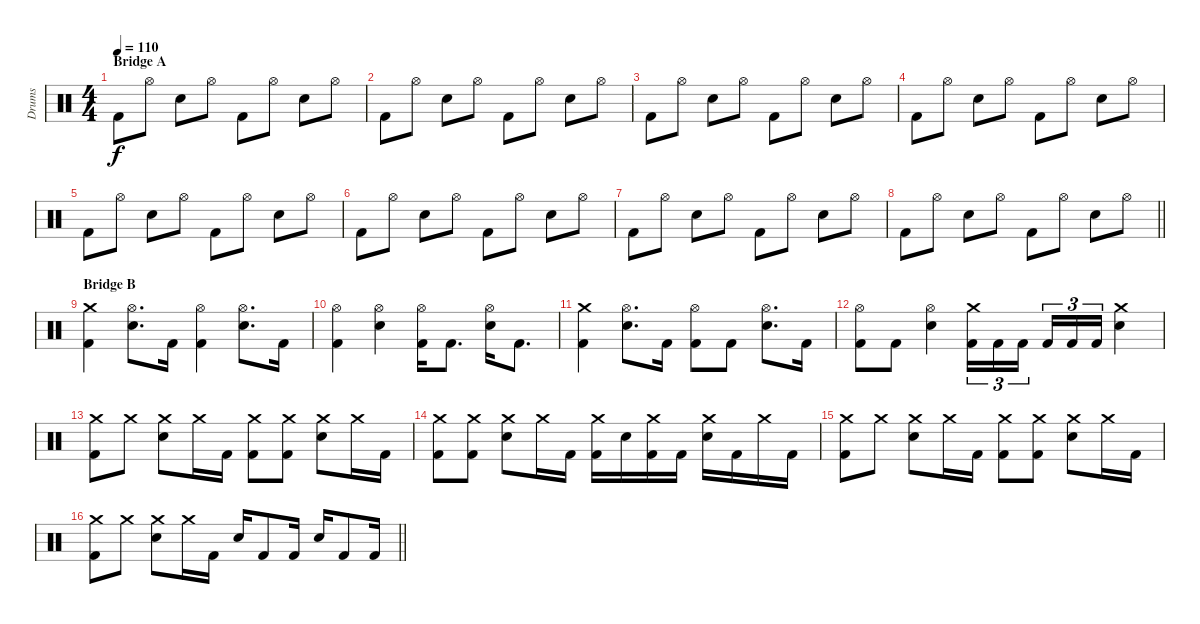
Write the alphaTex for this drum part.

\track ("Drums" "Drums") {instrument percussion}
\staff {score}
\articulation defaults
\ts (4 4)
\section ("" "Bridge A")
\tempo 110
\clef neutral
\ks c "Kick (hit) 2".8{dy f} "Hi-Hat (open)".8 "Electric Snare (hit)".8 "Hi-Hat (open)".8 "Kick (hit) 2".8 "Hi-Hat (open)".8 "Electric Snare (hit)".8 "Hi-Hat (open)".8
|
"Kick (hit) 2".8 "Hi-Hat (open)".8 "Electric Snare (hit)".8 "Hi-Hat (open)".8 "Kick (hit) 2".8 "Hi-Hat (open)".8 "Electric Snare (hit)".8 "Hi-Hat (open)".8 |
"Kick (hit) 2".8 "Hi-Hat (open)".8 "Electric Snare (hit)".8 "Hi-Hat (open)".8 "Kick (hit) 2".8 "Hi-Hat (open)".8 "Electric Snare (hit)".8 "Hi-Hat (open)".8 |
"Kick (hit) 2".8 "Hi-Hat (open)".8 "Electric Snare (hit)".8 "Hi-Hat (open)".8 "Kick (hit) 2".8 "Hi-Hat (open)".8 "Electric Snare (hit)".8 "Hi-Hat (open)".8 |
"Kick (hit) 2".8 "Hi-Hat (open)".8 "Electric Snare (hit)".8 "Hi-Hat (open)".8 "Kick (hit) 2".8 "Hi-Hat (open)".8 "Electric Snare (hit)".8 "Hi-Hat (open)".8 |
"Kick (hit) 2".8 "Hi-Hat (open)".8 "Electric Snare (hit)".8 "Hi-Hat (open)".8 "Kick (hit) 2".8 "Hi-Hat (open)".8 "Electric Snare (hit)".8 "Hi-Hat (open)".8 |
"Kick (hit) 2".8 "Hi-Hat (open)".8 "Electric Snare (hit)".8 "Hi-Hat (open)".8 "Kick (hit) 2".8 "Hi-Hat (open)".8 "Electric Snare (hit)".8 "Hi-Hat (open)".8 |
\barLineRight lightlight "Kick (hit) 2".8 "Hi-Hat (open)".8 "Electric Snare (hit)".8 "Hi-Hat (open)".8 "Kick (hit) 2".8 "Hi-Hat (open)".8 "Electric Snare (hit)".8 "Hi-Hat (open)".8
|
\section ("" "Bridge B")
("Crash medium (hit)" "Kick (hit) 2").4 ("Hi-Hat (open)" "Electric Snare (hit)").8{d} "Kick (hit) 2".16 ("Hi-Hat (open)" "Kick (hit) 2").4 ("Hi-Hat (open)" "Electric Snare (hit)").8{d} "Kick (hit) 2".16 |
("Hi-Hat (open)" "Kick (hit) 2").4 ("Hi-Hat (open)" "Electric Snare (hit)").4 ("Hi-Hat (open)" "Kick (hit) 2").16 "Kick (hit) 2".8{d} ("Hi-Hat (open)" "Electric Snare (hit)").16 "Kick (hit) 2".8{d} |
("Crash medium (hit)" "Kick (hit) 2").4 ("Hi-Hat (open)" "Electric Snare (hit)").8{d} "Kick (hit) 2".16 ("Hi-Hat (open)" "Kick (hit) 2").8 "Kick (hit) 2".8 ("Hi-Hat (open)" "Electric Snare (hit)").8{d} "Kick (hit) 2".16 |
("Hi-Hat (open)" "Kick (hit) 2").8 "Kick (hit) 2".8 ("Hi-Hat (open)" "Electric Snare (hit)").4 ("Crash medium (hit)" "Kick (hit) 2").16{tu (3 2)} "Kick (hit) 2".16{tu (3 2)} "Kick (hit) 2".16{tu (3 2) beam splitsecondary} "Kick (hit) 2".16{tu (3 2)} "Kick (hit) 2".16{tu (3 2)} "Kick (hit) 2".16{tu (3 2)} ("Crash medium (hit)" "Electric Snare (hit)").4 |
("Crash medium (hit)" "Kick (hit) 2").8 "Crash medium (hit)".8 ("Crash medium (hit)" "Electric Snare (hit)").8 "Crash medium (hit)".16 "Kick (hit) 2".16 ("Crash medium (hit)" "Kick (hit) 2").8 ("Crash medium (hit)" "Kick (hit) 2").8 ("Crash medium (hit)" "Electric Snare (hit)").8 "Crash medium (hit)".16 "Kick (hit) 2".16 |
("Crash medium (hit)" "Kick (hit) 2").8 ("Crash medium (hit)" "Kick (hit) 2").8 ("Crash medium (hit)" "Electric Snare (hit)").8 "Crash medium (hit)".16 "Kick (hit) 2".16 ("Crash medium (hit)" "Kick (hit) 2").16 "Electric Snare (hit)".16 ("Crash medium (hit)" "Kick (hit) 2").16 "Kick (hit) 2".16 ("Crash medium (hit)" "Electric Snare (hit)").16 "Kick (hit) 2".16 "Crash medium (hit)".16 "Kick (hit) 2".16 |
("Crash medium (hit)" "Kick (hit) 2").8 "Crash medium (hit)".8 ("Crash medium (hit)" "Electric Snare (hit)").8 "Crash medium (hit)".16 "Kick (hit) 2".16 ("Crash medium (hit)" "Kick (hit) 2").8 ("Crash medium (hit)" "Kick (hit) 2").8 ("Crash medium (hit)" "Electric Snare (hit)").8 "Crash medium (hit)".16 "Kick (hit) 2".16 |
\barLineRight lightlight
("Crash medium (hit)" "Kick (hit) 2").8 "Crash medium (hit)".8 ("Crash medium (hit)" "Electric Snare (hit)").8 "Crash medium (hit)".16 "Kick (hit) 2".16 "Electric Snare (hit)".16 "Kick (hit) 2".8 "Kick (hit) 2".16 "Electric Snare (hit)".16 "Kick (hit) 2".8 "Kick (hit) 2".16
